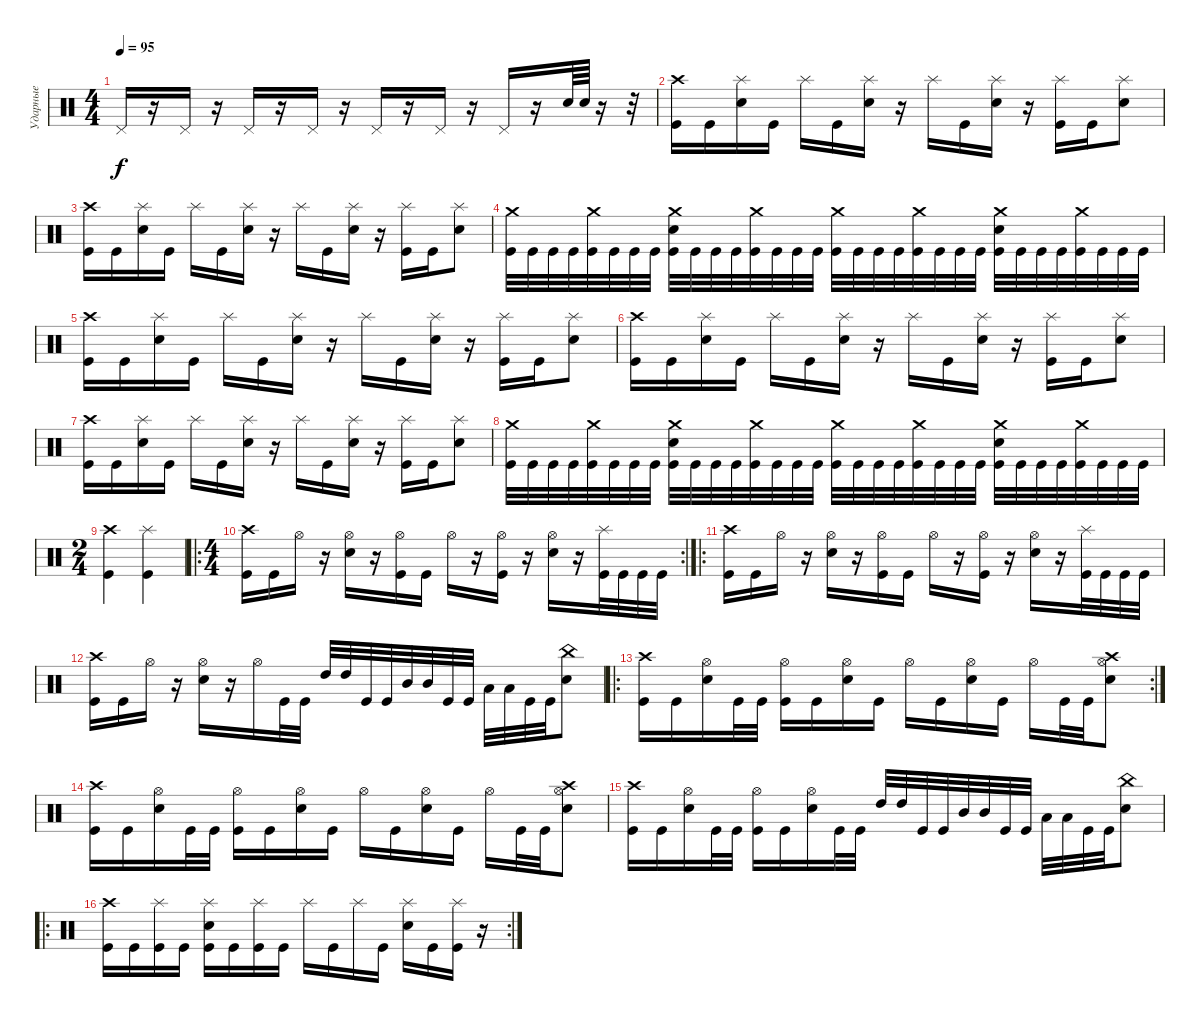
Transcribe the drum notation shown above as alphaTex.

\track ("Ударные" "Ударные") {instrument percussion}
\staff {score}
\articulation defaults
\ts (4 4)
\tempo 95
\clef neutral
\ks c "Pedal Hi-Hat (hit)".16{dy f}
r.16 "Pedal Hi-Hat (hit)".16 r.16 "Pedal Hi-Hat (hit)".16 r.16 "Pedal Hi-Hat (hit)".16 r.16 "Pedal Hi-Hat (hit)".16 r.16 "Pedal Hi-Hat (hit)".16 r.16 "Pedal Hi-Hat (hit)".16 r.16 "Electric Snare (hit)".64 "Electric Snare (hit)".64 r.16 r.32 |
("Crash high (hit)" "Kick (hit)").16 "Kick (hit)".16 ("Splash (hit)" "Electric Snare (hit)").16 "Kick (hit)".16 "Splash (hit)".16 "Kick (hit)".16 ("Splash (hit)" "Electric Snare (hit)").16 r.16 "Splash (hit)".16 "Kick (hit)".16 ("Splash (hit)" "Electric Snare (hit)").16 r.16 ("Splash (hit)" "Kick (hit)").16 "Kick (hit)".16 ("Splash (hit)" "Electric Snare (hit)").8 |
("Crash high (hit)" "Kick (hit)").16 "Kick (hit)".16 ("Splash (hit)" "Electric Snare (hit)").16 "Kick (hit)".16 "Splash (hit)".16 "Kick (hit)".16 ("Splash (hit)" "Electric Snare (hit)").16 r.16 "Splash (hit)".16 "Kick (hit)".16 ("Splash (hit)" "Electric Snare (hit)").16 r.16 ("Splash (hit)" "Kick (hit)").16 "Kick (hit)".16 ("Splash (hit)" "Electric Snare (hit)").8 |
("Crash medium (hit)" "Kick (hit)").32 "Kick (hit)".32 "Kick (hit)".32 "Kick (hit)".32 ("Crash medium (hit)" "Kick (hit)").32 "Kick (hit)".32 "Kick (hit)".32 "Kick (hit)".32 ("Crash medium (hit)" "Electric Snare (hit)" "Kick (hit)").32 "Kick (hit)".32 "Kick (hit)".32 "Kick (hit)".32 ("Crash medium (hit)" "Kick (hit)").32 "Kick (hit)".32 "Kick (hit)".32 "Kick (hit)".32 ("Crash medium (hit)" "Kick (hit)").32 "Kick (hit)".32 "Kick (hit)".32 "Kick (hit)".32 ("Crash medium (hit)" "Kick (hit)").32 "Kick (hit)".32 "Kick (hit)".32 "Kick (hit)".32 ("Crash medium (hit)" "Electric Snare (hit)" "Kick (hit)").32 "Kick (hit)".32 "Kick (hit)".32 "Kick (hit)".32 ("Crash medium (hit)" "Kick (hit)").32 "Kick (hit)".32 "Kick (hit)".32 "Kick (hit)".32 |
("Crash high (hit)" "Kick (hit)").16 "Kick (hit)".16 ("Splash (hit)" "Electric Snare (hit)").16 "Kick (hit)".16 "Splash (hit)".16 "Kick (hit)".16 ("Splash (hit)" "Electric Snare (hit)").16 r.16 "Splash (hit)".16 "Kick (hit)".16 ("Splash (hit)" "Electric Snare (hit)").16 r.16 ("Splash (hit)" "Kick (hit)").16 "Kick (hit)".16 ("Splash (hit)" "Electric Snare (hit)").8 |
("Crash high (hit)" "Kick (hit)").16 "Kick (hit)".16 ("Splash (hit)" "Electric Snare (hit)").16 "Kick (hit)".16 "Splash (hit)".16 "Kick (hit)".16 ("Splash (hit)" "Electric Snare (hit)").16 r.16 "Splash (hit)".16 "Kick (hit)".16 ("Splash (hit)" "Electric Snare (hit)").16 r.16 ("Splash (hit)" "Kick (hit)").16 "Kick (hit)".16 ("Splash (hit)" "Electric Snare (hit)").8 |
("Crash high (hit)" "Kick (hit)").16 "Kick (hit)".16 ("Splash (hit)" "Electric Snare (hit)").16 "Kick (hit)".16 "Splash (hit)".16 "Kick (hit)".16 ("Splash (hit)" "Electric Snare (hit)").16 r.16 "Splash (hit)".16 "Kick (hit)".16 ("Splash (hit)" "Electric Snare (hit)").16 r.16 ("Splash (hit)" "Kick (hit)").16 "Kick (hit)".16 ("Splash (hit)" "Electric Snare (hit)").8 |
("Crash medium (hit)" "Kick (hit)").32 "Kick (hit)".32 "Kick (hit)".32 "Kick (hit)".32 ("Crash medium (hit)" "Kick (hit)").32 "Kick (hit)".32 "Kick (hit)".32 "Kick (hit)".32 ("Crash medium (hit)" "Electric Snare (hit)" "Kick (hit)").32 "Kick (hit)".32 "Kick (hit)".32 "Kick (hit)".32 ("Crash medium (hit)" "Kick (hit)").32 "Kick (hit)".32 "Kick (hit)".32 "Kick (hit)".32 ("Crash medium (hit)" "Kick (hit)").32 "Kick (hit)".32 "Kick (hit)".32 "Kick (hit)".32 ("Crash medium (hit)" "Kick (hit)").32 "Kick (hit)".32 "Kick (hit)".32 "Kick (hit)".32 ("Crash medium (hit)" "Electric Snare (hit)" "Kick (hit)").32 "Kick (hit)".32 "Kick (hit)".32 "Kick (hit)".32 ("Crash medium (hit)" "Kick (hit)").32 "Kick (hit)".32 "Kick (hit)".32 "Kick (hit)".32 |
\ts (2 4)
("Crash high (hit)" "Kick (hit)").4 ("Splash (hit)" "Kick (hit)").4 |
\ro
\rc 2
\ts (4 4)
("Crash high (hit)" "Kick (hit)").16 "Kick (hit)".16 "Hi-Hat (open)".16 r.16 ("Hi-Hat (open)" "Electric Snare (hit)").16 r.16 ("Hi-Hat (open)" "Kick (hit)").16 "Kick (hit)".16 "Hi-Hat (open)".16 r.16 ("Hi-Hat (open)" "Kick (hit)").16 r.16 ("Hi-Hat (open)" "Electric Snare (hit)").16 r.16 ("Splash (hit)" "Kick (hit)").32 "Kick (hit)".32 "Kick (hit)".32 "Kick (hit)".32 |
\ro
("Crash high (hit)" "Kick (hit)").16 "Kick (hit)".16 "Hi-Hat (open)".16 r.16 ("Hi-Hat (open)" "Electric Snare (hit)").16 r.16 ("Hi-Hat (open)" "Kick (hit)").16 "Kick (hit)".16 "Hi-Hat (open)".16 r.16 ("Hi-Hat (open)" "Kick (hit)").16 r.16 ("Hi-Hat (open)" "Electric Snare (hit)").16 r.16 ("Splash (hit)" "Kick (hit)").32 "Kick (hit)".32 "Kick (hit)".32 "Kick (hit)".32 |
("Crash high (hit)" "Kick (hit)").16 "Kick (hit)".16 "Hi-Hat (open)".16 r.16 ("Hi-Hat (open)" "Electric Snare (hit)").16 r.16 "Hi-Hat (open)".16 "Kick (hit)".32 "Kick (hit)".32 "High Tom (hit)".32 "High Tom (hit)".32 "Kick (hit)".32 "Kick (hit)".32 "Mid Tom (hit)".32 "Mid Tom (hit)".32 "Kick (hit)".32 "Kick (hit)".32 "Low Tom (hit)".32 "Low Tom (hit)".32 "Kick (hit)".32 "Kick (hit)".32 ("China (hit)" "Electric Snare (hit)").8 |
\ro
\rc 2
("Crash high (hit)" "Kick (hit)").16 "Kick (hit)".16 ("Hi-Hat (open)" "Electric Snare (hit)").16 "Kick (hit)".32 "Kick (hit)".32 ("Hi-Hat (open)" "Kick (hit)").16 "Kick (hit)".16 ("Hi-Hat (open)" "Electric Snare (hit)").16 "Kick (hit)".16 "Hi-Hat (open)".16 "Kick (hit)".16 ("Hi-Hat (open)" "Electric Snare (hit)").16 "Kick (hit)".16 "Hi-Hat (open)".16 "Kick (hit)".32 "Kick (hit)".32 ("Hi-Hat (open)" "Crash high (hit)" "Electric Snare (hit)").8 |
("Crash high (hit)" "Kick (hit)").16 "Kick (hit)".16 ("Hi-Hat (open)" "Electric Snare (hit)").16 "Kick (hit)".32 "Kick (hit)".32 ("Hi-Hat (open)" "Kick (hit)").16 "Kick (hit)".16 ("Hi-Hat (open)" "Electric Snare (hit)").16 "Kick (hit)".16 "Hi-Hat (open)".16 "Kick (hit)".16 ("Hi-Hat (open)" "Electric Snare (hit)").16 "Kick (hit)".16 "Hi-Hat (open)".16 "Kick (hit)".32 "Kick (hit)".32 ("Hi-Hat (open)" "Crash high (hit)" "Electric Snare (hit)").8 |
("Crash high (hit)" "Kick (hit)").16 "Kick (hit)".16 ("Hi-Hat (open)" "Electric Snare (hit)").16 "Kick (hit)".32 "Kick (hit)".32 ("Hi-Hat (open)" "Kick (hit)").16 "Kick (hit)".16 ("Hi-Hat (open)" "Electric Snare (hit)").16 "Kick (hit)".32 "Kick (hit)".32 "High Tom (hit)".32 "High Tom (hit)".32 "Kick (hit)".32 "Kick (hit)".32 "Mid Tom (hit)".32 "Mid Tom (hit)".32 "Kick (hit)".32 "Kick (hit)".32 "Low Tom (hit)".32 "Low Tom (hit)".32 "Kick (hit)".32 "Kick (hit)".32 ("China (hit)" "Electric Snare (hit)").8 |
\ro
\rc 2
("Crash high (hit)" "Kick (hit)").16 "Kick (hit)".16 ("Splash (hit)" "Kick (hit)").16 "Kick (hit)".16 ("Splash (hit)" "Electric Snare (hit)" "Kick (hit)").16 "Kick (hit)".16 ("Splash (hit)" "Kick (hit)").16 "Kick (hit)".16 "Splash (hit)".16 "Kick (hit)".16 "Splash (hit)".16 "Kick (hit)".16 ("Splash (hit)" "Electric Snare (hit)").16 "Kick (hit)".16 ("Splash (hit)" "Kick (hit)").16 r.16
